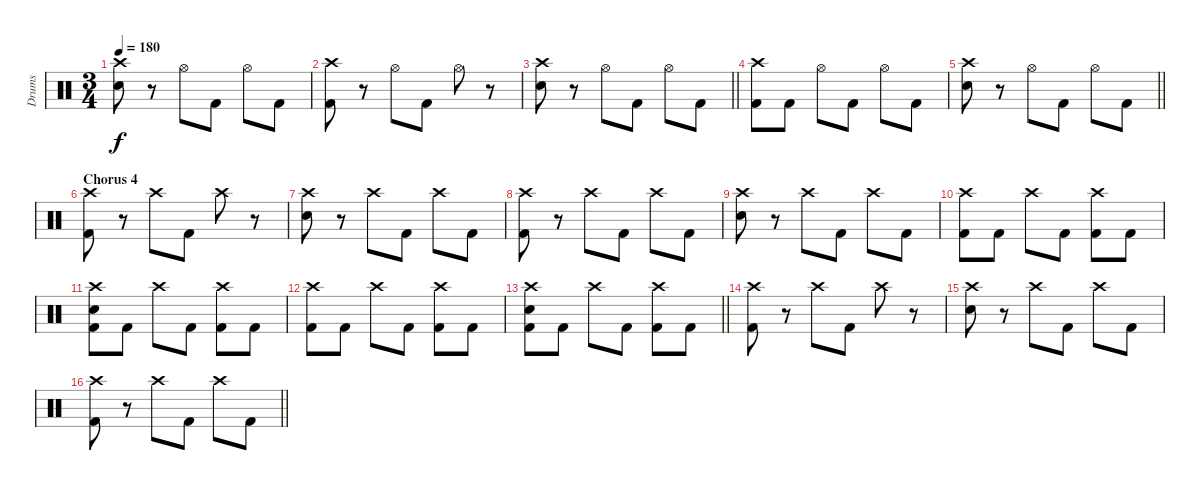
\track ("Drums" "Drums") {instrument percussion}
\staff {score}
\articulation defaults
\ts (3 4)
\tempo 180
\clef neutral
\ks c
("Crash high (hit)" "Electric Snare (hit)").8{dy f} r.8 "Hi-Hat (open)".8 "Kick (hit) 2".8 "Hi-Hat (open)".8 "Kick (hit) 2".8 |
("Crash high (hit)" "Kick (hit) 2").8 r.8 "Hi-Hat (open)".8 "Kick (hit) 2".8 "Hi-Hat (open)".8 r.8 |
\barLineRight lightlight
("Crash high (hit)" "Electric Snare (hit)").8 r.8 "Hi-Hat (open)".8 "Kick (hit) 2".8 "Hi-Hat (open)".8 "Kick (hit) 2".8 |
("Crash high (hit)" "Kick (hit) 2").8 "Kick (hit) 2".8 "Hi-Hat (open)".8 "Kick (hit) 2".8 "Hi-Hat (open)".8 "Kick (hit) 2".8 |
\barLineRight lightlight
("Crash high (hit)" "Electric Snare (hit)").8 r.8 "Hi-Hat (open)".8 "Kick (hit) 2".8 "Hi-Hat (open)".8 "Kick (hit) 2".8 |
\section ("" "Chorus 4")
("Crash high (hit)" "Kick (hit) 2").8 r.8 "Crash high (hit)".8 "Kick (hit) 2".8 "Crash high (hit)".8 r.8 |
("Crash high (hit)" "Electric Snare (hit)").8 r.8 "Crash high (hit)".8 "Kick (hit) 2".8 "Crash high (hit)".8 "Kick (hit) 2".8 |
("Crash high (hit)" "Kick (hit) 2").8 r.8 "Crash high (hit)".8 "Kick (hit) 2".8 "Crash high (hit)".8 "Kick (hit) 2".8 |
("Crash high (hit)" "Electric Snare (hit)").8 r.8 "Crash high (hit)".8 "Kick (hit) 2".8 "Crash high (hit)".8 "Kick (hit) 2".8 |
("Crash high (hit)" "Kick (hit) 2").8 "Kick (hit) 2".8 "Crash high (hit)".8 "Kick (hit) 2".8 ("Crash high (hit)" "Kick (hit) 2").8 "Kick (hit) 2".8 |
("Crash high (hit)" "Electric Snare (hit)" "Kick (hit) 2").8 "Kick (hit) 2".8 "Crash high (hit)".8 "Kick (hit) 2".8 ("Crash high (hit)" "Kick (hit) 2").8 "Kick (hit) 2".8 |
("Crash high (hit)" "Kick (hit) 2").8 "Kick (hit) 2".8 "Crash high (hit)".8 "Kick (hit) 2".8 ("Crash high (hit)" "Kick (hit) 2").8 "Kick (hit) 2".8 |
\barLineRight lightlight
("Crash high (hit)" "Electric Snare (hit)" "Kick (hit) 2").8 "Kick (hit) 2".8 "Crash high (hit)".8 "Kick (hit) 2".8 ("Crash high (hit)" "Kick (hit) 2").8 "Kick (hit) 2".8 |
("Crash high (hit)" "Kick (hit) 2").8 r.8 "Crash high (hit)".8 "Kick (hit) 2".8 "Crash high (hit)".8 r.8 |
("Crash high (hit)" "Electric Snare (hit)").8 r.8 "Crash high (hit)".8 "Kick (hit) 2".8 "Crash high (hit)".8 "Kick (hit) 2".8 |
\barLineRight lightlight
("Crash high (hit)" "Kick (hit) 2").8 r.8 "Crash high (hit)".8 "Kick (hit) 2".8 "Crash high (hit)".8 "Kick (hit) 2".8
